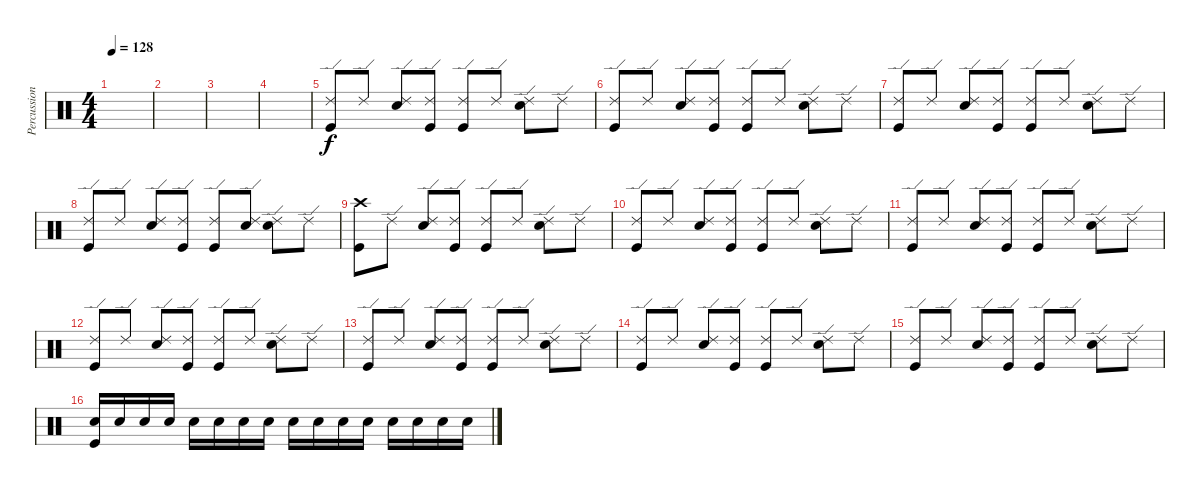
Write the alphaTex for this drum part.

\track ("Percussion" "Percussion") {instrument percussion}
\staff {score}
\articulation defaults
\ts (4 4)
\tempo 128
\clef neutral
\ks c
|
|
|
|
("Ride (edge) 2" "Kick (hit)").8 "Ride (edge) 2".8 ("Ride (edge) 2" "Snare (hit) 2").8 ("Ride (edge) 2" "Kick (hit)").8 ("Ride (edge) 2" "Kick (hit)").8 "Ride (edge) 2".8 ("Ride (edge) 2" "Snare (hit) 2").8 "Ride (edge) 2".8 |
("Ride (edge) 2" "Kick (hit)").8 "Ride (edge) 2".8 ("Ride (edge) 2" "Snare (hit) 2").8 ("Ride (edge) 2" "Kick (hit)").8 ("Ride (edge) 2" "Kick (hit)").8 "Ride (edge) 2".8 ("Ride (edge) 2" "Snare (hit) 2").8 "Ride (edge) 2".8 |
("Ride (edge) 2" "Kick (hit)").8 "Ride (edge) 2".8 ("Ride (edge) 2" "Snare (hit) 2").8 ("Ride (edge) 2" "Kick (hit)").8 ("Ride (edge) 2" "Kick (hit)").8 "Ride (edge) 2".8 ("Ride (edge) 2" "Snare (hit) 2").8 "Ride (edge) 2".8 |
("Ride (edge) 2" "Kick (hit)").8 "Ride (edge) 2".8 ("Ride (edge) 2" "Snare (hit) 2").8 ("Ride (edge) 2" "Kick (hit)").8 ("Ride (edge) 2" "Kick (hit)").8 ("Ride (edge) 2" "Snare (hit) 2").8 ("Ride (edge) 2" "Snare (hit) 2").8 "Ride (edge) 2".8 |
("Crash high (hit)" "Kick (hit)").8 "Ride (edge) 2".8 ("Ride (edge) 2" "Snare (hit) 2").8 ("Ride (edge) 2" "Kick (hit)").8 ("Ride (edge) 2" "Kick (hit)").8 "Ride (edge) 2".8 ("Ride (edge) 2" "Snare (hit) 2").8 "Ride (edge) 2".8 |
("Ride (edge) 2" "Kick (hit)").8 "Ride (edge) 2".8 ("Ride (edge) 2" "Snare (hit) 2").8 ("Ride (edge) 2" "Kick (hit)").8 ("Ride (edge) 2" "Kick (hit)").8 "Ride (edge) 2".8 ("Ride (edge) 2" "Snare (hit) 2").8 "Ride (edge) 2".8 |
("Ride (edge) 2" "Kick (hit)").8 "Ride (edge) 2".8 ("Ride (edge) 2" "Snare (hit) 2").8 ("Ride (edge) 2" "Kick (hit)").8 ("Ride (edge) 2" "Kick (hit)").8 "Ride (edge) 2".8 ("Ride (edge) 2" "Snare (hit) 2").8 "Ride (edge) 2".8 |
("Ride (edge) 2" "Kick (hit)").8 "Ride (edge) 2".8 ("Ride (edge) 2" "Snare (hit) 2").8 ("Ride (edge) 2" "Kick (hit)").8 ("Ride (edge) 2" "Kick (hit)").8 "Ride (edge) 2".8 ("Ride (edge) 2" "Snare (hit) 2").8 "Ride (edge) 2".8 |
("Ride (edge) 2" "Kick (hit)").8 "Ride (edge) 2".8 ("Ride (edge) 2" "Snare (hit) 2").8 ("Ride (edge) 2" "Kick (hit)").8 ("Ride (edge) 2" "Kick (hit)").8 "Ride (edge) 2".8 ("Ride (edge) 2" "Snare (hit) 2").8 "Ride (edge) 2".8 |
("Ride (edge) 2" "Kick (hit)").8 "Ride (edge) 2".8 ("Ride (edge) 2" "Snare (hit) 2").8 ("Ride (edge) 2" "Kick (hit)").8 ("Ride (edge) 2" "Kick (hit)").8 "Ride (edge) 2".8 ("Ride (edge) 2" "Snare (hit) 2").8 "Ride (edge) 2".8 |
("Ride (edge) 2" "Kick (hit)").8 "Ride (edge) 2".8 ("Ride (edge) 2" "Snare (hit) 2").8 ("Ride (edge) 2" "Kick (hit)").8 ("Ride (edge) 2" "Kick (hit)").8 "Ride (edge) 2".8 ("Ride (edge) 2" "Snare (hit) 2").8 "Ride (edge) 2".8 |
("Snare (hit) 2" "Kick (hit)").16 "Snare (hit) 2".16 "Snare (hit) 2".16 "Snare (hit) 2".16 "Snare (hit) 2".16 "Snare (hit) 2".16 "Snare (hit) 2".16 "Snare (hit) 2".16 "Snare (hit) 2".16 "Snare (hit) 2".16 "Snare (hit) 2".16 "Snare (hit) 2".16 "Snare (hit) 2".16 "Snare (hit) 2".16 "Snare (hit) 2".16 "Snare (hit) 2".16
